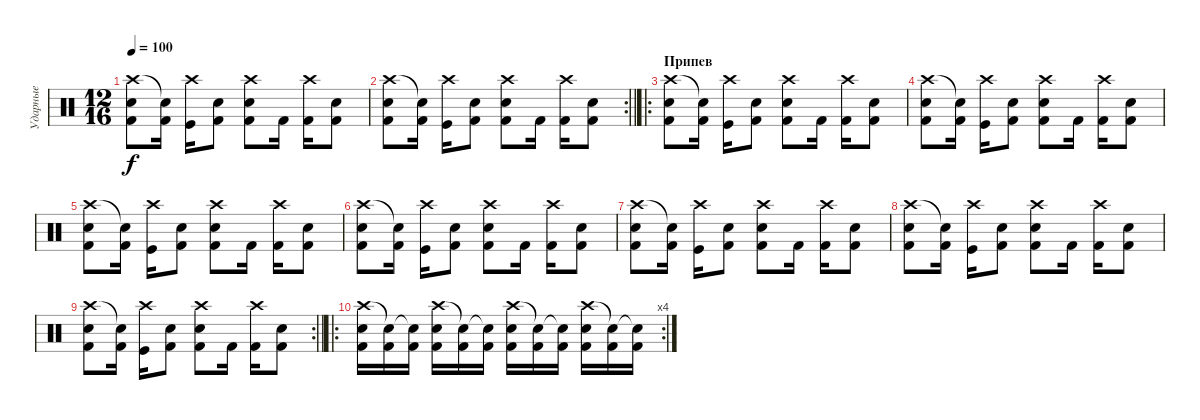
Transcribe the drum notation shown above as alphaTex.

\track ("Ударные" "Ударные") {instrument percussion}
\staff {score}
\articulation defaults
\ts (12 16)
\tempo 100
\clef neutral
\ks c
("Crash high (hit)" "Electric Snare (hit)" "Kick (hit) 2").8{dy f} ("Snare (hit)"{t} "Kick (hit) 2").16 ("Crash high (hit)" "Kick (hit)").16 ("Electric Snare (hit)" "Kick (hit) 2").8 ("Crash high (hit)" "Electric Snare (hit)" "Kick (hit) 2").8 "Kick (hit) 2".16 ("Crash high (hit)" "Kick (hit) 2").16 ("Electric Snare (hit)" "Kick (hit) 2").8 |
\rc 2
\barLineRight lightlight
("Crash high (hit)" "Electric Snare (hit)" "Kick (hit) 2").8 ("Snare (hit)"{t} "Kick (hit) 2").16 ("Crash high (hit)" "Kick (hit)").16 ("Electric Snare (hit)" "Kick (hit) 2").8 ("Crash high (hit)" "Electric Snare (hit)" "Kick (hit) 2").8 "Kick (hit) 2".16 ("Crash high (hit)" "Kick (hit) 2").16 ("Electric Snare (hit)" "Kick (hit) 2").8 |
\ro
\section ("" "Припев")
("Crash high (hit)" "Electric Snare (hit)" "Kick (hit) 2").8 ("Snare (hit)"{t} "Kick (hit) 2").16 ("Crash high (hit)" "Kick (hit)").16 ("Electric Snare (hit)" "Kick (hit) 2").8 ("Crash high (hit)" "Electric Snare (hit)" "Kick (hit) 2").8 "Kick (hit) 2".16 ("Crash high (hit)" "Kick (hit) 2").16 ("Electric Snare (hit)" "Kick (hit) 2").8 |
("Crash high (hit)" "Electric Snare (hit)" "Kick (hit) 2").8 ("Snare (hit)"{t} "Kick (hit) 2").16 ("Crash high (hit)" "Kick (hit)").16 ("Electric Snare (hit)" "Kick (hit) 2").8 ("Crash high (hit)" "Electric Snare (hit)" "Kick (hit) 2").8 "Kick (hit) 2".16 ("Crash high (hit)" "Kick (hit) 2").16 ("Electric Snare (hit)" "Kick (hit) 2").8 |
("Crash high (hit)" "Electric Snare (hit)" "Kick (hit) 2").8 ("Snare (hit)"{t} "Kick (hit) 2").16 ("Crash high (hit)" "Kick (hit)").16 ("Electric Snare (hit)" "Kick (hit) 2").8 ("Crash high (hit)" "Electric Snare (hit)" "Kick (hit) 2").8 "Kick (hit) 2".16 ("Crash high (hit)" "Kick (hit) 2").16 ("Electric Snare (hit)" "Kick (hit) 2").8 |
("Crash high (hit)" "Electric Snare (hit)" "Kick (hit) 2").8 ("Snare (hit)"{t} "Kick (hit) 2").16 ("Crash high (hit)" "Kick (hit)").16 ("Electric Snare (hit)" "Kick (hit) 2").8 ("Crash high (hit)" "Electric Snare (hit)" "Kick (hit) 2").8 "Kick (hit) 2".16 ("Crash high (hit)" "Kick (hit) 2").16 ("Electric Snare (hit)" "Kick (hit) 2").8 |
("Crash high (hit)" "Electric Snare (hit)" "Kick (hit) 2").8 ("Snare (hit)"{t} "Kick (hit) 2").16 ("Crash high (hit)" "Kick (hit)").16 ("Electric Snare (hit)" "Kick (hit) 2").8 ("Crash high (hit)" "Electric Snare (hit)" "Kick (hit) 2").8 "Kick (hit) 2".16 ("Crash high (hit)" "Kick (hit) 2").16 ("Electric Snare (hit)" "Kick (hit) 2").8 |
("Crash high (hit)" "Electric Snare (hit)" "Kick (hit) 2").8 ("Snare (hit)"{t} "Kick (hit) 2").16 ("Crash high (hit)" "Kick (hit)").16 ("Electric Snare (hit)" "Kick (hit) 2").8 ("Crash high (hit)" "Electric Snare (hit)" "Kick (hit) 2").8 "Kick (hit) 2".16 ("Crash high (hit)" "Kick (hit) 2").16 ("Electric Snare (hit)" "Kick (hit) 2").8 |
\rc 2
\barLineRight lightlight
("Crash high (hit)" "Electric Snare (hit)" "Kick (hit) 2").8 ("Snare (hit)"{t} "Kick (hit) 2").16 ("Crash high (hit)" "Kick (hit)").16 ("Electric Snare (hit)" "Kick (hit) 2").8 ("Crash high (hit)" "Electric Snare (hit)" "Kick (hit) 2").8 "Kick (hit) 2".16 ("Crash high (hit)" "Kick (hit) 2").16 ("Electric Snare (hit)" "Kick (hit) 2").8 |
\ro
\rc 4
("Crash high (hit)" "Electric Snare (hit)" "Kick (hit) 2").16 ("Snare (hit)"{t} "Kick (hit) 2").16 ("Snare (hit)"{t} "Kick (hit) 2").16 ("Crash high (hit)" "Electric Snare (hit)" "Kick (hit) 2").16 ("Snare (hit)"{t} "Kick (hit) 2").16 ("Snare (hit)"{t} "Kick (hit) 2").16 ("Crash high (hit)" "Electric Snare (hit)" "Kick (hit) 2").16 ("Snare (hit)"{t} "Kick (hit) 2").16 ("Snare (hit)"{t} "Kick (hit) 2").16 ("Crash high (hit)" "Electric Snare (hit)" "Kick (hit) 2").16 ("Snare (hit)"{t} "Kick (hit) 2").16 ("Snare (hit)"{t} "Kick (hit) 2").16
